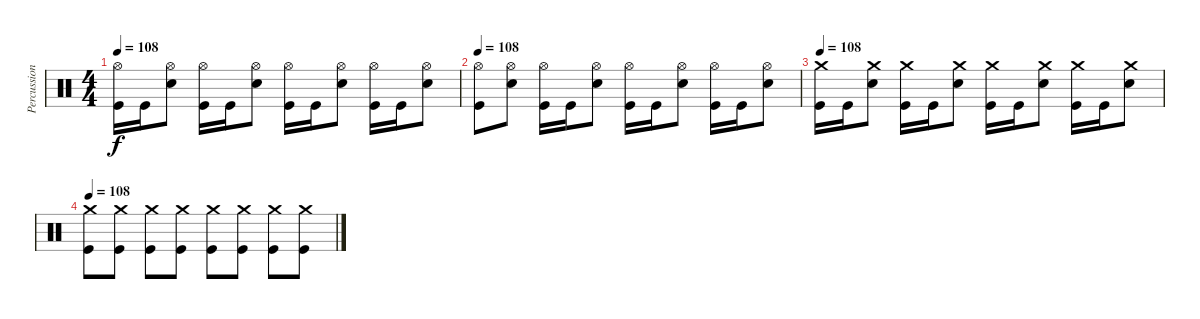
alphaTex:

\track ("Percussions" "Percussion") {instrument percussion}
\staff {score}
\articulation defaults
\ts (4 4)
\tempo 108
\clef neutral
\ks c
("Hi-Hat (open)" "Kick (hit)").16{dy f} "Kick (hit)".16 ("Hi-Hat (open)" "Electric Snare (hit)").8 ("Hi-Hat (open)" "Kick (hit)").16 "Kick (hit)".16 ("Hi-Hat (open)" "Electric Snare (hit)").8 ("Hi-Hat (open)" "Kick (hit)").16 "Kick (hit)".16 ("Hi-Hat (open)" "Electric Snare (hit)").8 ("Hi-Hat (open)" "Kick (hit)").16 "Kick (hit)".16 ("Hi-Hat (open)" "Electric Snare (hit)").8 |
\tempo 108
("Hi-Hat (open)" "Kick (hit)").8 ("Hi-Hat (open)" "Electric Snare (hit)").8 ("Hi-Hat (open)" "Kick (hit)").16 "Kick (hit)".16 ("Hi-Hat (open)" "Electric Snare (hit)").8 ("Hi-Hat (open)" "Kick (hit)").16 "Kick (hit)".16 ("Hi-Hat (open)" "Electric Snare (hit)").8 ("Hi-Hat (open)" "Kick (hit)").16 "Kick (hit)".16 ("Hi-Hat (open)" "Electric Snare (hit)").8 |
\tempo 108
("Crash medium (hit)" "Kick (hit)").16 "Kick (hit)".16 ("Crash medium (hit)" "Electric Snare (hit)").8 ("Crash medium (hit)" "Kick (hit)").16 "Kick (hit)".16 ("Crash medium (hit)" "Electric Snare (hit)").8 ("Crash medium (hit)" "Kick (hit)").16 "Kick (hit)".16 ("Crash medium (hit)" "Electric Snare (hit)").8 ("Crash medium (hit)" "Kick (hit)").16 "Kick (hit)".16 ("Crash medium (hit)" "Electric Snare (hit)").8 |
\tempo 108
("Crash medium (hit)" "Kick (hit)").8 ("Crash medium (hit)" "Kick (hit)").8 ("Crash medium (hit)" "Kick (hit)").8 ("Crash medium (hit)" "Kick (hit)").8 ("Crash medium (hit)" "Kick (hit)").8 ("Crash medium (hit)" "Kick (hit)").8 ("Crash medium (hit)" "Kick (hit)").8 ("Crash medium (hit)" "Kick (hit)").8
